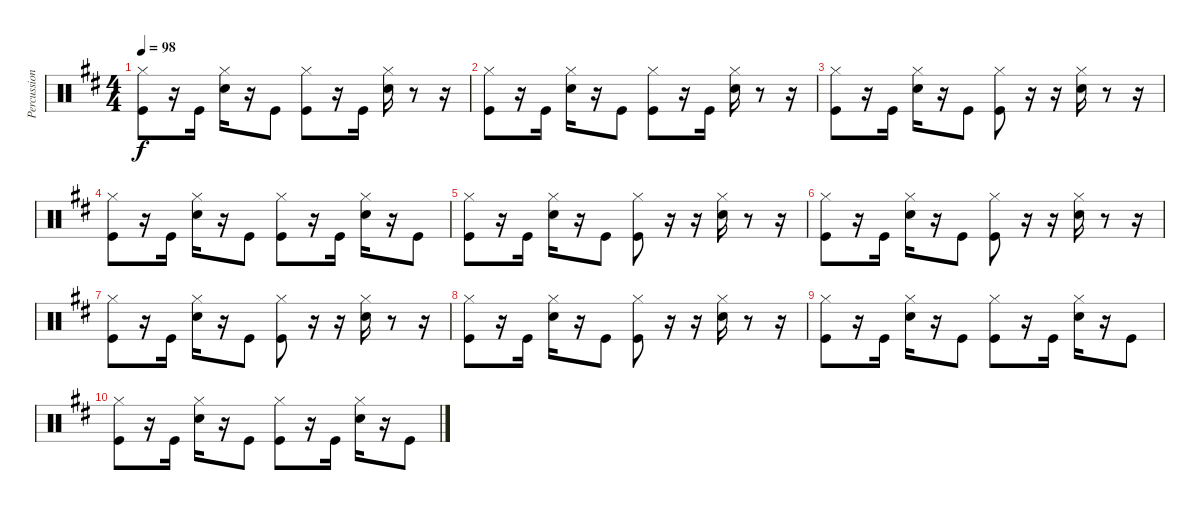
\track ("Percussion" "Percussion") {instrument percussion}
\staff {score}
\articulation defaults
\ts (4 4)
\tempo 98
\clef neutral
\ks bminor
("Hi-Hat (closed)" "Kick (hit)").8{dy f} r.16 "Kick (hit)".16 ("Hi-Hat (closed)" "Snare (hit) 2").16 r.16 "Kick (hit)".8 ("Hi-Hat (closed)" "Kick (hit)").8 r.16 "Kick (hit)".16 ("Hi-Hat (closed)" "Snare (hit) 2").16 r.8 r.16 |
("Hi-Hat (closed)" "Kick (hit)").8 r.16 "Kick (hit)".16 ("Hi-Hat (closed)" "Snare (hit) 2").16 r.16 "Kick (hit)".8 ("Hi-Hat (closed)" "Kick (hit)").8 r.16 "Kick (hit)".16 ("Hi-Hat (closed)" "Snare (hit) 2").16 r.8 r.16 |
("Hi-Hat (closed)" "Kick (hit)").8 r.16 "Kick (hit)".16 ("Hi-Hat (closed)" "Snare (hit) 2").16 r.16 "Kick (hit)".8 ("Hi-Hat (closed)" "Kick (hit)").8 r.16 r.16 ("Hi-Hat (closed)" "Snare (hit) 2").16 r.8 r.16 |
("Hi-Hat (closed)" "Kick (hit)").8 r.16 "Kick (hit)".16 ("Hi-Hat (closed)" "Snare (hit) 2").16 r.16 "Kick (hit)".8 ("Hi-Hat (closed)" "Kick (hit)").8 r.16 "Kick (hit)".16 ("Hi-Hat (closed)" "Snare (hit) 2").16 r.16 "Kick (hit)".8 |
("Hi-Hat (closed)" "Kick (hit)").8 r.16 "Kick (hit)".16 ("Hi-Hat (closed)" "Snare (hit) 2").16 r.16 "Kick (hit)".8 ("Hi-Hat (closed)" "Kick (hit)").8 r.16 r.16 ("Hi-Hat (closed)" "Snare (hit) 2").16 r.8 r.16 |
("Hi-Hat (closed)" "Kick (hit)").8 r.16 "Kick (hit)".16 ("Hi-Hat (closed)" "Snare (hit) 2").16 r.16 "Kick (hit)".8 ("Hi-Hat (closed)" "Kick (hit)").8 r.16 r.16 ("Hi-Hat (closed)" "Snare (hit) 2").16 r.8 r.16 |
("Hi-Hat (closed)" "Kick (hit)").8 r.16 "Kick (hit)".16 ("Hi-Hat (closed)" "Snare (hit) 2").16 r.16 "Kick (hit)".8 ("Hi-Hat (closed)" "Kick (hit)").8 r.16 r.16 ("Hi-Hat (closed)" "Snare (hit) 2").16 r.8 r.16 |
("Hi-Hat (closed)" "Kick (hit)").8 r.16 "Kick (hit)".16 ("Hi-Hat (closed)" "Snare (hit) 2").16 r.16 "Kick (hit)".8 ("Hi-Hat (closed)" "Kick (hit)").8 r.16 r.16 ("Hi-Hat (closed)" "Snare (hit) 2").16 r.8 r.16 |
("Hi-Hat (closed)" "Kick (hit)").8 r.16 "Kick (hit)".16 ("Hi-Hat (closed)" "Snare (hit) 2").16 r.16 "Kick (hit)".8 ("Hi-Hat (closed)" "Kick (hit)").8 r.16 "Kick (hit)".16 ("Hi-Hat (closed)" "Snare (hit) 2").16 r.16 "Kick (hit)".8 |
("Hi-Hat (closed)" "Kick (hit)").8 r.16 "Kick (hit)".16 ("Hi-Hat (closed)" "Snare (hit) 2").16 r.16 "Kick (hit)".8 ("Hi-Hat (closed)" "Kick (hit)").8 r.16 "Kick (hit)".16 ("Hi-Hat (closed)" "Snare (hit) 2").16 r.16 "Kick (hit)".8
